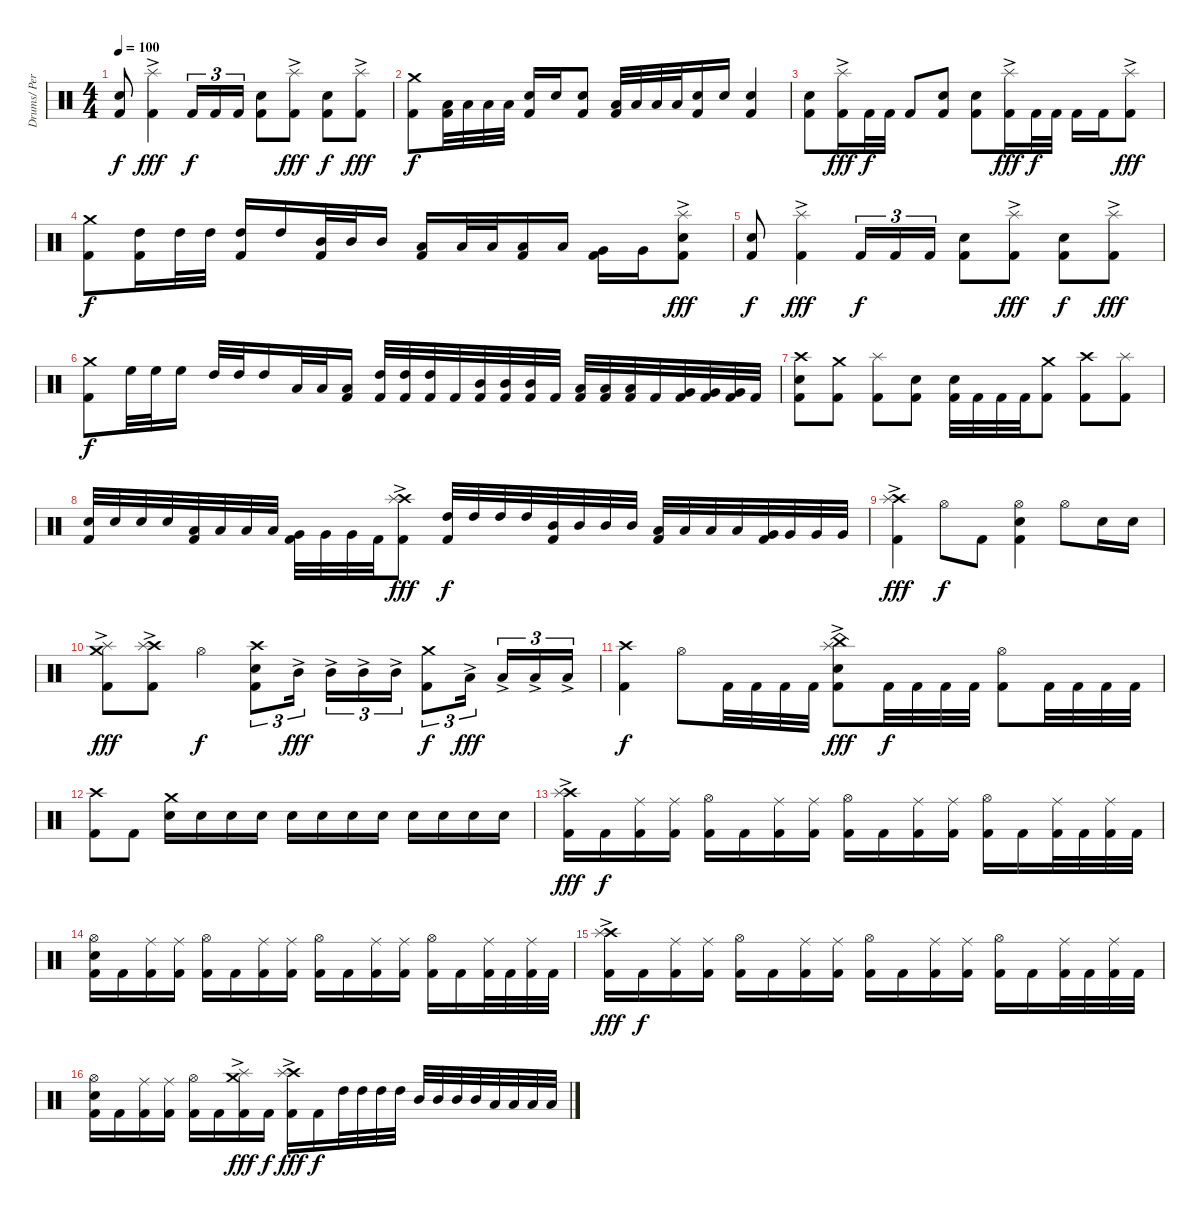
\track ("Drums/ Percussion - Tony Laureano" "Drums/ Per") {instrument percussion}
\staff {score}
\articulation defaults
\ts (4 4)
\tempo 100
\clef neutral
\ks c
("Electric Snare (hit)" "Kick (hit) 2").8{dy f} ("Splash (hit)"{ac} "Kick (hit) 2").4{dy fff} "Kick (hit) 2".16{tu (3 2) dy f} "Kick (hit) 2".16{tu (3 2)} "Kick (hit) 2".16{tu (3 2)} ("Electric Snare (hit)" "Kick (hit) 2").8 ("Splash (hit)"{ac} "Kick (hit) 2").8{dy fff} ("Electric Snare (hit)" "Kick (hit) 2").8{dy f} ("Splash (hit)"{ac} "Kick (hit) 2").8{dy fff} |
("Crash medium (hit)" "Kick (hit) 2").8{dy f} ("Low Floor Tom (hit)" "Kick (hit) 2").32 "Low Floor Tom (hit)".32 "Low Floor Tom (hit)".32 "Low Floor Tom (hit)".32 ("Electric Snare (hit)" "Kick (hit) 2").16 "Electric Snare (hit)".16 ("Electric Snare (hit)" "Kick (hit) 2").8 ("Low Floor Tom (hit)" "Kick (hit) 2").32 "Low Floor Tom (hit)".32 "Low Floor Tom (hit)".32 "Low Floor Tom (hit)".32 ("Electric Snare (hit)" "Kick (hit) 2").16 "Electric Snare (hit)".16 ("Electric Snare (hit)" "Kick (hit) 2").4 |
("Electric Snare (hit)" "Kick (hit) 2").8 ("Splash (hit)"{ac} "Kick (hit) 2").16{dy fff} "Kick (hit) 2".32{dy f} "Kick (hit) 2".32 "Kick (hit) 2".8 ("Electric Snare (hit)" "Kick (hit) 2").8 ("Electric Snare (hit)" "Kick (hit) 2").8 ("Splash (hit)"{ac} "Kick (hit) 2").16{dy fff} "Kick (hit) 2".32{dy f} "Kick (hit) 2".32 "Kick (hit) 2".16 "Kick (hit) 2".16 ("Splash (hit)"{ac} "Kick (hit) 2").8{dy fff} |
("Crash medium (hit)" "Kick (hit) 2").8{dy f} ("High Tom (hit)" "Kick (hit) 2").16 "High Tom (hit)".32 "High Tom (hit)".32 ("High Tom (hit)" "Kick (hit) 2").16 "High Tom (hit)".16 ("Mid Tom (hit)" "Kick (hit) 2").32 "Mid Tom (hit)".32 "Mid Tom (hit)".16 ("Low Tom (hit)" "Kick (hit) 2").16 "Low Tom (hit)".32 "Low Tom (hit)".32 ("Low Tom (hit)" "Kick (hit) 2").16 "Low Tom (hit)".16 ("Very Low Tom (hit)" "Kick (hit) 2").16 "Very Low Tom (hit)".16 ("Splash (hit)"{ac} "Electric Snare (hit)" "Kick (hit) 2").8{dy fff} |
("Electric Snare (hit)" "Kick (hit) 2").8{dy f} ("Splash (hit)"{ac} "Kick (hit) 2").4{dy fff} "Kick (hit) 2".16{tu (3 2) dy f} "Kick (hit) 2".16{tu (3 2)} "Kick (hit) 2".16{tu (3 2)} ("Electric Snare (hit)" "Kick (hit) 2").8 ("Splash (hit)"{ac} "Kick (hit) 2").8{dy fff} ("Electric Snare (hit)" "Kick (hit) 2").8{dy f} ("Splash (hit)"{ac} "Kick (hit) 2").8{dy fff} |
("Crash medium (hit)" "Kick (hit) 2").8{dy f} "High Floor Tom (hit)".32 "High Floor Tom (hit)".32 "High Floor Tom (hit)".16 "High Tom (hit)".32 "High Tom (hit)".32 "High Tom (hit)".16 "Low Tom (hit)".32 "Low Tom (hit)".32 ("Low Tom (hit)" "Kick (hit) 2").16 ("High Tom (hit)" "Kick (hit) 2").32 ("High Tom (hit)" "Kick (hit) 2").32 ("High Tom (hit)" "Kick (hit) 2").32 "Kick (hit) 2".32 ("Mid Tom (hit)" "Kick (hit) 2").32 ("Mid Tom (hit)" "Kick (hit) 2").32 ("Mid Tom (hit)" "Kick (hit) 2").32 "Kick (hit) 2".32 ("Low Tom (hit)" "Kick (hit) 2").32 ("Low Tom (hit)" "Kick (hit) 2").32 ("Low Tom (hit)" "Kick (hit) 2").32 "Kick (hit) 2".32 ("Very Low Tom (hit)" "Kick (hit) 2").32 ("Very Low Tom (hit)" "Kick (hit) 2").32 ("Very Low Tom (hit)" "Kick (hit) 2").32 "Kick (hit) 2".32 |
("Crash high (hit)" "Electric Snare (hit)" "Kick (hit) 2").8 ("Crash medium (hit)" "Kick (hit) 2").8 ("Splash (hit)" "Kick (hit) 2").8 ("Electric Snare (hit)" "Kick (hit) 2").8 ("Electric Snare (hit)" "Kick (hit) 2").32 "Kick (hit) 2".32 "Kick (hit) 2".32 "Kick (hit) 2".32 ("Crash medium (hit)" "Kick (hit) 2").8 ("Crash high (hit)" "Kick (hit) 2").8 ("Splash (hit)" "Kick (hit) 2").8 |
("Electric Snare (hit)" "Kick (hit) 2").32 "Electric Snare (hit)".32 "Electric Snare (hit)".32 "Electric Snare (hit)".32 ("Low Tom (hit)" "Kick (hit) 2").32 "Low Tom (hit)".32 "Low Tom (hit)".32 "Low Tom (hit)".32 ("Very Low Tom (hit)" "Kick (hit) 2").32 "Very Low Tom (hit)".32 "Very Low Tom (hit)".32 "Kick (hit) 2".32 ("Crash high (hit)" "Splash (hit)"{ac} "Kick (hit) 2").8{dy fff} ("High Tom (hit)" "Kick (hit) 2").32{dy f} "High Tom (hit)".32 "High Tom (hit)".32 "High Tom (hit)".32 ("Mid Tom (hit)" "Kick (hit) 2").32 "Mid Tom (hit)".32 "Mid Tom (hit)".32 "Mid Tom (hit)".32 ("Low Tom (hit)" "Kick (hit) 2").32 "Low Tom (hit)".32 "Low Tom (hit)".32 "Low Tom (hit)".32 ("Very Low Tom (hit)" "Kick (hit) 2").32 "Very Low Tom (hit)".32 "Very Low Tom (hit)".32 "Very Low Tom (hit)".32 |
("Crash high (hit)" "Splash (hit)"{ac} "Kick (hit) 2").4{dy fff} "Hi-Hat (open)".8{dy f} "Kick (hit) 2".8 ("Hi-Hat (open)" "Electric Snare (hit)" "Kick (hit) 2").4 "Hi-Hat (open)".8 "Electric Snare (hit)".16 "Electric Snare (hit)".16 |
("Crash medium (hit)" "Splash (hit)"{ac} "Kick (hit) 2").8{dy fff} ("Crash high (hit)" "Splash (hit)"{ac} "Kick (hit) 2").8 "Hi-Hat (open)".4{dy f} ("Crash high (hit)" "Electric Snare (hit)" "Kick (hit) 2").8{tu (3 2)} "Mid Tom (hit)"{ac}.16{tu (3 2) dy fff} "Mid Tom (hit)"{ac}.16{tu (3 2)} "Mid Tom (hit)"{ac}.16{tu (3 2)} "Mid Tom (hit)"{ac}.16{tu (3 2)} ("Crash medium (hit)" "Kick (hit) 2").8{tu (3 2) dy f} "Low Tom (hit)"{ac}.16{tu (3 2) dy fff} "Low Tom (hit)"{ac}.16{tu (3 2)} "Low Tom (hit)"{ac}.16{tu (3 2)} "Low Tom (hit)"{ac}.16{tu (3 2)} |
("Crash high (hit)" "Kick (hit) 2").4{dy f} "Hi-Hat (open)".8 "Kick (hit) 2".32 "Kick (hit) 2".32 "Kick (hit) 2".32 "Kick (hit) 2".32 ("Splash (hit)"{ac} "China (hit)" "Electric Snare (hit)" "Kick (hit) 2").8{dy fff} "Kick (hit) 2".32{dy f} "Kick (hit) 2".32 "Kick (hit) 2".32 "Kick (hit) 2".32 ("Hi-Hat (open)" "Kick (hit) 2").8 "Kick (hit) 2".32 "Kick (hit) 2".32 "Kick (hit) 2".32 "Kick (hit) 2".32 |
("Crash high (hit)" "Kick (hit) 2").8 "Kick (hit) 2".8 ("Crash medium (hit)" "Electric Snare (hit)").16 "Electric Snare (hit)".16 "Electric Snare (hit)".16 "Electric Snare (hit)".16 "Electric Snare (hit)".16 "Electric Snare (hit)".16 "Electric Snare (hit)".16 "Electric Snare (hit)".16 "Electric Snare (hit)".16 "Electric Snare (hit)".16 "Electric Snare (hit)".16 "Electric Snare (hit)".16 |
("Crash high (hit)" "Splash (hit)"{ac} "Kick (hit) 2").16{dy fff} "Kick (hit) 2".16{dy f} ("Ride (middle)" "Kick (hit) 2").16 ("Ride (middle)" "Kick (hit) 2").16 ("Hi-Hat (open)" "Kick (hit) 2").16 "Kick (hit) 2".16 ("Ride (middle)" "Kick (hit) 2").16 ("Ride (middle)" "Kick (hit) 2").16 ("Hi-Hat (open)" "Kick (hit) 2").16 "Kick (hit) 2".16 ("Ride (middle)" "Kick (hit) 2").16 ("Ride (middle)" "Kick (hit) 2").16 ("Hi-Hat (open)" "Kick (hit) 2").16 "Kick (hit) 2".16 ("Ride (middle)" "Kick (hit) 2").32 "Kick (hit) 2".32 ("Ride (middle)" "Kick (hit) 2").32 "Kick (hit) 2".32 |
("Hi-Hat (open)" "Electric Snare (hit)" "Kick (hit) 2").16 "Kick (hit) 2".16 ("Ride (middle)" "Kick (hit) 2").16 ("Ride (middle)" "Kick (hit) 2").16 ("Hi-Hat (open)" "Kick (hit) 2").16 "Kick (hit) 2".16 ("Ride (middle)" "Kick (hit) 2").16 ("Ride (middle)" "Kick (hit) 2").16 ("Hi-Hat (open)" "Kick (hit) 2").16 "Kick (hit) 2".16 ("Ride (middle)" "Kick (hit) 2").16 ("Ride (middle)" "Kick (hit) 2").16 ("Hi-Hat (open)" "Kick (hit) 2").16 "Kick (hit) 2".16 ("Ride (middle)" "Kick (hit) 2").32 "Kick (hit) 2".32 ("Ride (middle)" "Kick (hit) 2").32 "Kick (hit) 2".32 |
("Crash high (hit)" "Splash (hit)"{ac} "Kick (hit) 2").16{dy fff} "Kick (hit) 2".16{dy f} ("Ride (middle)" "Kick (hit) 2").16 ("Ride (middle)" "Kick (hit) 2").16 ("Hi-Hat (open)" "Kick (hit) 2").16 "Kick (hit) 2".16 ("Ride (middle)" "Kick (hit) 2").16 ("Ride (middle)" "Kick (hit) 2").16 ("Hi-Hat (open)" "Kick (hit) 2").16 "Kick (hit) 2".16 ("Ride (middle)" "Kick (hit) 2").16 ("Ride (middle)" "Kick (hit) 2").16 ("Hi-Hat (open)" "Kick (hit) 2").16 "Kick (hit) 2".16 ("Ride (middle)" "Kick (hit) 2").32 "Kick (hit) 2".32 ("Ride (middle)" "Kick (hit) 2").32 "Kick (hit) 2".32 |
("Hi-Hat (open)" "Electric Snare (hit)" "Kick (hit) 2").16 "Kick (hit) 2".16 ("Ride (middle)" "Kick (hit) 2").16 ("Ride (middle)" "Kick (hit) 2").16 ("Hi-Hat (open)" "Kick (hit) 2").16 "Kick (hit) 2".16 ("Crash medium (hit)" "Splash (hit)"{ac} "Kick (hit) 2").16{dy fff} "Kick (hit) 2".16{dy f} ("Crash high (hit)" "Splash (hit)"{ac} "Kick (hit) 2").16{dy fff} "Kick (hit) 2".16{dy f} "High Tom (hit)".32 "High Tom (hit)".32 "High Tom (hit)".32 "High Tom (hit)".32 "Mid Tom (hit)".32 "Mid Tom (hit)".32 "Mid Tom (hit)".32 "Mid Tom (hit)".32 "Low Tom (hit)".32 "Low Tom (hit)".32 "Low Tom (hit)".32 "Low Tom (hit)".32
